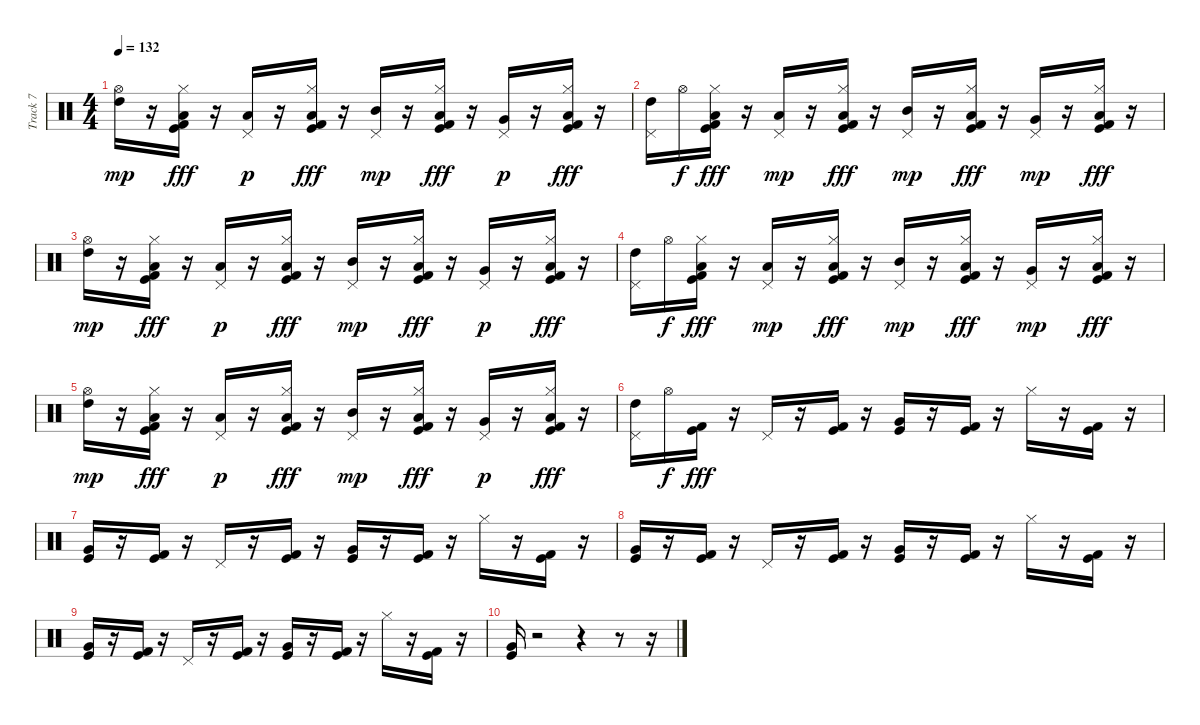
\track ("Track 7" "Track 7") {instrument percussion}
\staff {score}
\articulation defaults
\ts (4 4)
\tempo 132
\clef neutral
\ks c
("High Tom (hit)" "Hi-Hat (open)").16{dy mp} r.16 ("Low Floor Tom (hit)" "Hi-Hat (closed)" "Kick (hit) 2" "Kick (hit)").16{dy fff} r.16 ("Low Tom (hit)" "Pedal Hi-Hat (hit)").16{dy p} r.16 ("Low Floor Tom (hit)" "Hi-Hat (closed)" "Kick (hit) 2" "Kick (hit)").16{dy fff} r.16 ("Mid Tom (hit)" "Pedal Hi-Hat (hit)").16{dy mp} r.16 ("Low Floor Tom (hit)" "Hi-Hat (closed)" "Kick (hit) 2" "Kick (hit)").16{dy fff} r.16 ("Very Low Tom (hit)" "Pedal Hi-Hat (hit)").16{dy p} r.16 ("Low Floor Tom (hit)" "Hi-Hat (closed)" "Kick (hit) 2" "Kick (hit)").16{dy fff} r.16 |
("High Tom (hit)" "Pedal Hi-Hat (hit)").16 "Hi-Hat (open)".16{dy f} ("Low Floor Tom (hit)" "Hi-Hat (closed)" "Kick (hit)" "Kick (hit) 2").16{dy fff} r.16 ("Low Tom (hit)" "Pedal Hi-Hat (hit)").16{dy mp} r.16 ("Low Floor Tom (hit)" "Hi-Hat (closed)" "Kick (hit)" "Kick (hit) 2").16{dy fff} r.16 ("Mid Tom (hit)" "Pedal Hi-Hat (hit)").16{dy mp} r.16 ("Low Floor Tom (hit)" "Hi-Hat (closed)" "Kick (hit)" "Kick (hit) 2").16{dy fff} r.16 ("Very Low Tom (hit)" "Pedal Hi-Hat (hit)").16{dy mp} r.16 ("Low Floor Tom (hit)" "Hi-Hat (closed)" "Kick (hit)" "Kick (hit) 2").16{dy fff} r.16 |
("High Tom (hit)" "Hi-Hat (open)").16{dy mp} r.16 ("Low Floor Tom (hit)" "Hi-Hat (closed)" "Kick (hit) 2" "Kick (hit)").16{dy fff} r.16 ("Low Tom (hit)" "Pedal Hi-Hat (hit)").16{dy p} r.16 ("Low Floor Tom (hit)" "Hi-Hat (closed)" "Kick (hit) 2" "Kick (hit)").16{dy fff} r.16 ("Mid Tom (hit)" "Pedal Hi-Hat (hit)").16{dy mp} r.16 ("Low Floor Tom (hit)" "Hi-Hat (closed)" "Kick (hit) 2" "Kick (hit)").16{dy fff} r.16 ("Very Low Tom (hit)" "Pedal Hi-Hat (hit)").16{dy p} r.16 ("Low Floor Tom (hit)" "Hi-Hat (closed)" "Kick (hit) 2" "Kick (hit)").16{dy fff} r.16 |
("High Tom (hit)" "Pedal Hi-Hat (hit)").16 "Hi-Hat (open)".16{dy f} ("Low Floor Tom (hit)" "Hi-Hat (closed)" "Kick (hit)" "Kick (hit) 2").16{dy fff} r.16 ("Low Tom (hit)" "Pedal Hi-Hat (hit)").16{dy mp} r.16 ("Low Floor Tom (hit)" "Hi-Hat (closed)" "Kick (hit)" "Kick (hit) 2").16{dy fff} r.16 ("Mid Tom (hit)" "Pedal Hi-Hat (hit)").16{dy mp} r.16 ("Low Floor Tom (hit)" "Hi-Hat (closed)" "Kick (hit)" "Kick (hit) 2").16{dy fff} r.16 ("Very Low Tom (hit)" "Pedal Hi-Hat (hit)").16{dy mp} r.16 ("Low Floor Tom (hit)" "Hi-Hat (closed)" "Kick (hit)" "Kick (hit) 2").16{dy fff} r.16 |
("High Tom (hit)" "Hi-Hat (open)").16{dy mp} r.16 ("Low Floor Tom (hit)" "Hi-Hat (closed)" "Kick (hit) 2" "Kick (hit)").16{dy fff} r.16 ("Low Tom (hit)" "Pedal Hi-Hat (hit)").16{dy p} r.16 ("Low Floor Tom (hit)" "Hi-Hat (closed)" "Kick (hit) 2" "Kick (hit)").16{dy fff} r.16 ("Mid Tom (hit)" "Pedal Hi-Hat (hit)").16{dy mp} r.16 ("Low Floor Tom (hit)" "Hi-Hat (closed)" "Kick (hit) 2" "Kick (hit)").16{dy fff} r.16 ("Very Low Tom (hit)" "Pedal Hi-Hat (hit)").16{dy p} r.16 ("Low Floor Tom (hit)" "Hi-Hat (closed)" "Kick (hit) 2" "Kick (hit)").16{dy fff} r.16 |
("High Tom (hit)" "Pedal Hi-Hat (hit)").16 "Hi-Hat (open)".16{dy f} ("Kick (hit)" "Kick (hit) 2").16{dy fff} r.16 "Pedal Hi-Hat (hit)".16 r.16 ("Kick (hit)" "Kick (hit) 2").16 r.16 ("Very Low Tom (hit)" "Kick (hit)").16 r.16 ("Kick (hit)" "Kick (hit) 2").16 r.16 "Hi-Hat (closed)".16 r.16 ("Kick (hit)" "Kick (hit) 2").16 r.16 |
("Very Low Tom (hit)" "Kick (hit)").16 r.16 ("Kick (hit) 2" "Kick (hit)").16 r.16 "Pedal Hi-Hat (hit)".16 r.16 ("Kick (hit) 2" "Kick (hit)").16 r.16 ("Kick (hit)" "Very Low Tom (hit)").16 r.16 ("Kick (hit) 2" "Kick (hit)").16 r.16 "Hi-Hat (closed)".16 r.16 ("Kick (hit) 2" "Kick (hit)").16 r.16 |
("Kick (hit)" "Very Low Tom (hit)").16 r.16 ("Kick (hit)" "Kick (hit) 2").16 r.16 "Pedal Hi-Hat (hit)".16 r.16 ("Kick (hit)" "Kick (hit) 2").16 r.16 ("Very Low Tom (hit)" "Kick (hit)").16 r.16 ("Kick (hit)" "Kick (hit) 2").16 r.16 "Hi-Hat (closed)".16 r.16 ("Kick (hit)" "Kick (hit) 2").16 r.16 |
("Very Low Tom (hit)" "Kick (hit)").16 r.16 ("Kick (hit) 2" "Kick (hit)").16 r.16 "Pedal Hi-Hat (hit)".16 r.16 ("Kick (hit) 2" "Kick (hit)").16 r.16 ("Kick (hit)" "Very Low Tom (hit)").16 r.16 ("Kick (hit) 2" "Kick (hit)").16 r.16 "Hi-Hat (closed)".16 r.16 ("Kick (hit) 2" "Kick (hit)").16 r.16 |
("Kick (hit)" "Very Low Tom (hit)").16 r.2 r.4 r.8 r.16
